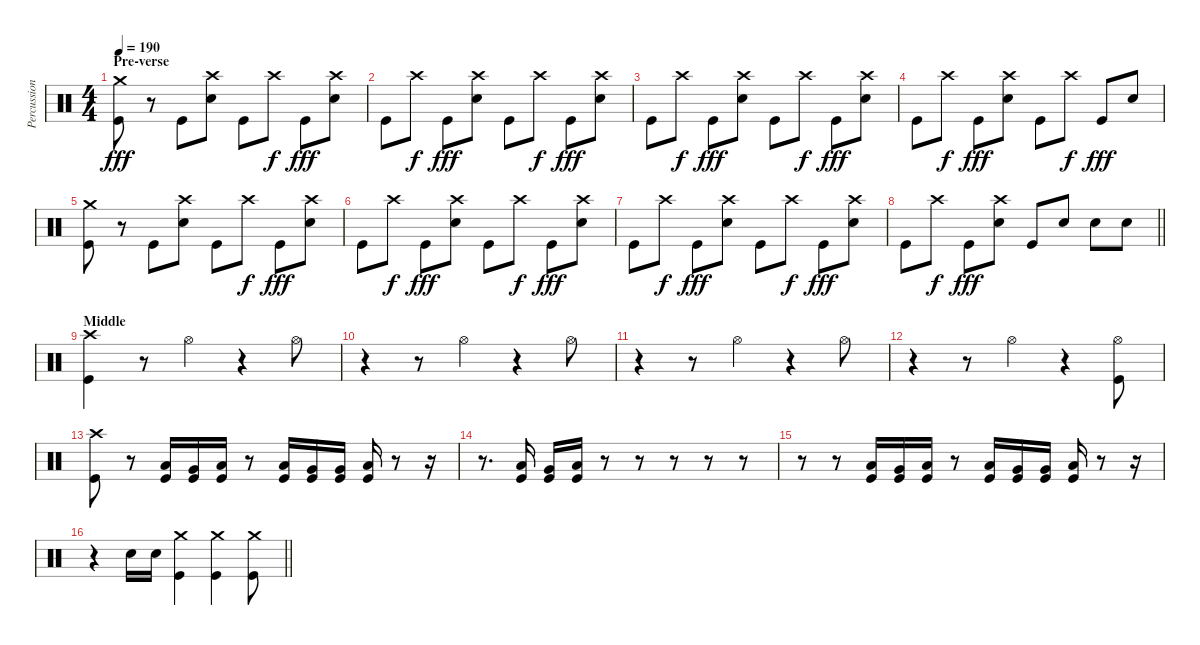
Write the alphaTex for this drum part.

\track ("Percussioni" "Percussion") {instrument percussion}
\staff {score}
\articulation defaults
\ts (4 4)
\section ("" "Pre-verse")
\tempo 190
\clef neutral
\ks c
("Crash medium (hit)" "Kick (hit)").8{dy fff} r.8 "Kick (hit)".8 ("Crash high (hit)" "Snare (hit) 2").8 "Kick (hit)".8 "Crash high (hit)".8{dy f} "Kick (hit)".8{dy fff} ("Crash high (hit)" "Snare (hit) 2").8 |
"Kick (hit)".8 "Crash high (hit)".8{dy f} "Kick (hit)".8{dy fff} ("Crash high (hit)" "Snare (hit) 2").8 "Kick (hit)".8 "Crash high (hit)".8{dy f} "Kick (hit)".8{dy fff} ("Crash high (hit)" "Snare (hit) 2").8 |
"Kick (hit)".8 "Crash high (hit)".8{dy f} "Kick (hit)".8{dy fff} ("Crash high (hit)" "Snare (hit) 2").8 "Kick (hit)".8 "Crash high (hit)".8{dy f} "Kick (hit)".8{dy fff} ("Crash high (hit)" "Snare (hit) 2").8 |
"Kick (hit)".8 "Crash high (hit)".8{dy f} "Kick (hit)".8{dy fff} ("Crash high (hit)" "Snare (hit) 2").8 "Kick (hit)".8 "Crash high (hit)".8{dy f} "Kick (hit)".8{dy fff} "Snare (hit) 2".8 |
("Crash medium (hit)" "Kick (hit)").8 r.8 "Kick (hit)".8 ("Crash high (hit)" "Snare (hit) 2").8 "Kick (hit)".8 "Crash high (hit)".8{dy f} "Kick (hit)".8{dy fff} ("Crash high (hit)" "Snare (hit) 2").8 |
"Kick (hit)".8 "Crash high (hit)".8{dy f} "Kick (hit)".8{dy fff} ("Crash high (hit)" "Snare (hit) 2").8 "Kick (hit)".8 "Crash high (hit)".8{dy f} "Kick (hit)".8{dy fff} ("Crash high (hit)" "Snare (hit) 2").8 |
"Kick (hit)".8 "Crash high (hit)".8{dy f} "Kick (hit)".8{dy fff} ("Crash high (hit)" "Snare (hit) 2").8 "Kick (hit)".8 "Crash high (hit)".8{dy f} "Kick (hit)".8{dy fff} ("Crash high (hit)" "Snare (hit) 2").8 |
\barLineRight lightlight "Kick (hit)".8 "Crash high (hit)".8{dy f} "Kick (hit)".8{dy fff}
("Crash high (hit)" "Snare (hit) 2").8 "Kick (hit)".8 "Snare (hit) 2".8 "Snare (hit) 2".8 "Snare (hit) 2".8 |
\section ("" "Middle")
("Crash high (hit)" "Kick (hit)").4 r.8 "Hi-Hat (open)".4 r.4 "Hi-Hat (open)".8 |
r.4 r.8 "Hi-Hat (open)".4 r.4 "Hi-Hat (open)".8 |
r.4 r.8 "Hi-Hat (open)".4 r.4 "Hi-Hat (open)".8 |
r.4 r.8 "Hi-Hat (open)".4 r.4 ("Hi-Hat (open)" "Kick (hit)").8 |
("Crash high (hit)" "Kick (hit)").8 r.8 ("Low Tom (hit)" "Kick (hit)").16 ("Very Low Tom (hit)" "Kick (hit)").16 ("Low Floor Tom (hit)" "Kick (hit)").16 r.8 ("Low Tom (hit)" "Kick (hit)").16 ("Very Low Tom (hit)" "Kick (hit)").16 ("Very Low Tom (hit)" "Kick (hit)").16 ("Low Floor Tom (hit)" "Kick (hit)").16 r.8 r.16 |
r.8{d} ("Low Tom (hit)" "Kick (hit)").16 ("Very Low Tom (hit)" "Kick (hit)").16 ("Low Floor Tom (hit)" "Kick (hit)").16 r.8 r.8 r.8 r.8 r.8 |
r.8 r.8 ("Low Tom (hit)" "Kick (hit)").16 ("Very Low Tom (hit)" "Kick (hit)").16 ("Low Floor Tom (hit)" "Kick (hit)").16 r.8 ("Low Tom (hit)" "Kick (hit)").16 ("Very Low Tom (hit)" "Kick (hit)").16 ("Very Low Tom (hit)" "Kick (hit)").16 ("Low Floor Tom (hit)" "Kick (hit)").16 r.8 r.16 |
\barLineRight lightlight
r.4 "Snare (hit) 2".16 "Snare (hit) 2".16 ("Crash medium (hit)" "Kick (hit)").4 ("Crash medium (hit)" "Kick (hit)").4 ("Crash medium (hit)" "Kick (hit)").8
